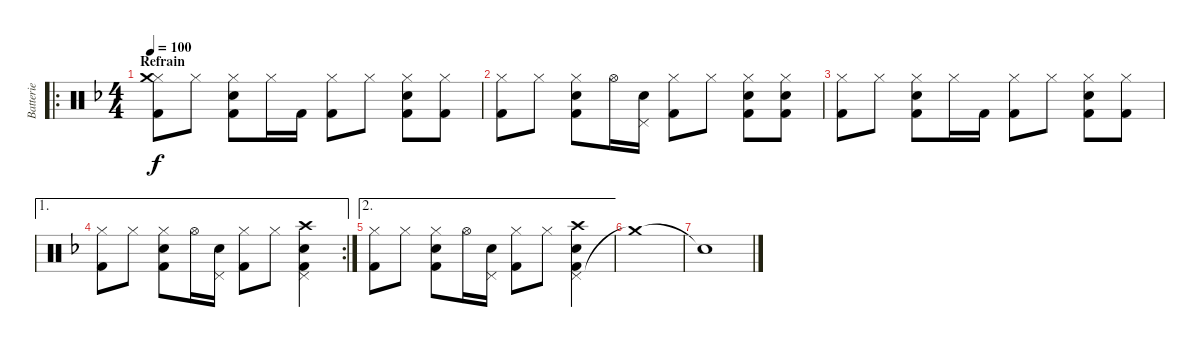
\track ("Batterie" "Batterie") {instrument percussion}
\staff {score}
\articulation defaults
\ro
\ts (4 4)
\section ("" "Refrain")
\tempo 100
\clef neutral
\ks f
("Hi-Hat (closed)" "Crash medium (hit)" "Kick (hit) 2").8{dy f} "Hi-Hat (closed)".8 ("Hi-Hat (closed)" "Snare (hit) 2" "Kick (hit) 2").8 "Hi-Hat (closed)".16 "Kick (hit) 2".16 ("Hi-Hat (closed)" "Kick (hit) 2").8 "Hi-Hat (closed)".8 ("Hi-Hat (closed)" "Snare (hit) 2" "Kick (hit) 2").8 ("Hi-Hat (closed)" "Kick (hit) 2").8 |
("Hi-Hat (closed)" "Kick (hit) 2").8 "Hi-Hat (closed)".8 ("Hi-Hat (closed)" "Snare (hit) 2" "Kick (hit) 2").8 "Hi-Hat (open)".16 ("Pedal Hi-Hat (hit)" "Snare (hit) 2").16 ("Hi-Hat (closed)" "Kick (hit) 2").8 "Hi-Hat (closed)".8 ("Hi-Hat (closed)" "Snare (hit) 2" "Kick (hit) 2").8 ("Hi-Hat (closed)" "Snare (hit) 2" "Kick (hit) 2").8 |
("Hi-Hat (closed)" "Kick (hit) 2").8 "Hi-Hat (closed)".8 ("Hi-Hat (closed)" "Snare (hit) 2" "Kick (hit) 2").8 "Hi-Hat (closed)".16 "Kick (hit) 2".16 ("Hi-Hat (closed)" "Kick (hit) 2").8 "Hi-Hat (closed)".8 ("Hi-Hat (closed)" "Snare (hit) 2" "Kick (hit) 2").8 ("Hi-Hat (closed)" "Kick (hit) 2").8 |
\ae 1
\rc 2
("Hi-Hat (closed)" "Kick (hit) 2").8 "Hi-Hat (closed)".8 ("Hi-Hat (closed)" "Snare (hit) 2" "Kick (hit) 2").8 "Hi-Hat (open)".16 ("Pedal Hi-Hat (hit)" "Snare (hit) 2").16 ("Hi-Hat (closed)" "Kick (hit) 2").8 "Hi-Hat (closed)".8 ("Pedal Hi-Hat (hit)" "Crash high (hit)" "Snare (hit) 2" "Kick (hit) 2").4 |
\ae 2
("Hi-Hat (closed)" "Kick (hit) 2").8 "Hi-Hat (closed)".8 ("Hi-Hat (closed)" "Snare (hit) 2" "Kick (hit) 2").8 "Hi-Hat (open)".16 ("Pedal Hi-Hat (hit)" "Snare (hit) 2").16 ("Hi-Hat (closed)" "Kick (hit) 2").8 "Hi-Hat (closed)".8 ("Pedal Hi-Hat (hit)" "Crash high (hit)" "Snare (hit) 2" "Kick (hit) 2").4 |
"Crash medium (hit)"{t}.1 |
"Snare (hit)"{t}.1
